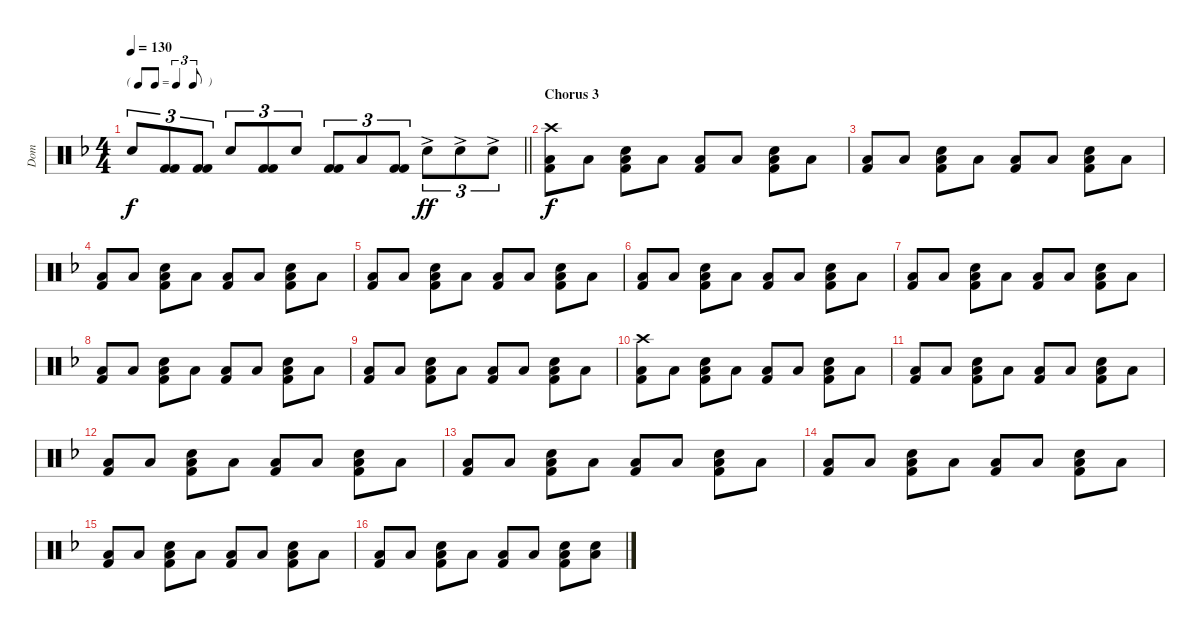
\track ("Dom" "Dom") {instrument percussion}
\staff {score}
\articulation defaults
\ts (4 4)
\tf triplet8th
\tempo 130
\clef neutral
\barLineRight lightlight
\ks dminor "Electric Snare (hit)".8{tu (3 2) dy f}
("Kick (hit) 2" "Kick (hit) 2").8{tu (3 2)} ("Kick (hit) 2" "Kick (hit) 2").8{tu (3 2)} "Electric Snare (hit)".8{tu (3 2)} ("Kick (hit) 2" "Kick (hit) 2").8{tu (3 2)} "Electric Snare (hit)".8{tu (3 2)} ("Kick (hit) 2" "Kick (hit) 2").8{tu (3 2)} "Low Tom (hit)".8{tu (3 2)} ("Kick (hit) 2" "Kick (hit) 2").8{tu (3 2)} "Electric Snare (hit)"{ac}.8{tu (3 2) dy ff} "Electric Snare (hit)"{ac}.8{tu (3 2)} "Electric Snare (hit)"{ac}.8{tu (3 2)} |
\section ("" "Chorus 3")
("Crash high (hit)" "Low Tom (hit)" "Kick (hit) 2").8{dy f} "Low Tom (hit)".8 ("Electric Snare (hit)" "Low Tom (hit)" "Kick (hit) 2").8 "Low Tom (hit)".8 ("Low Tom (hit)" "Kick (hit) 2").8 "Low Tom (hit)".8 ("Electric Snare (hit)" "Low Tom (hit)" "Kick (hit) 2").8 "Low Tom (hit)".8 |
("Low Tom (hit)" "Kick (hit) 2").8 "Low Tom (hit)".8 ("Electric Snare (hit)" "Low Tom (hit)" "Kick (hit) 2").8 "Low Tom (hit)".8 ("Low Tom (hit)" "Kick (hit) 2").8 "Low Tom (hit)".8 ("Electric Snare (hit)" "Low Tom (hit)" "Kick (hit) 2").8 "Low Tom (hit)".8 |
("Low Tom (hit)" "Kick (hit) 2").8 "Low Tom (hit)".8 ("Electric Snare (hit)" "Low Tom (hit)" "Kick (hit) 2").8 "Low Tom (hit)".8 ("Low Tom (hit)" "Kick (hit) 2").8 "Low Tom (hit)".8 ("Electric Snare (hit)" "Low Tom (hit)" "Kick (hit) 2").8 "Low Tom (hit)".8 |
("Low Tom (hit)" "Kick (hit) 2").8 "Low Tom (hit)".8 ("Electric Snare (hit)" "Low Tom (hit)" "Kick (hit) 2").8 "Low Tom (hit)".8 ("Low Tom (hit)" "Kick (hit) 2").8 "Low Tom (hit)".8 ("Electric Snare (hit)" "Low Tom (hit)" "Kick (hit) 2").8 "Low Tom (hit)".8 |
("Low Tom (hit)" "Kick (hit) 2").8 "Low Tom (hit)".8 ("Electric Snare (hit)" "Low Tom (hit)" "Kick (hit) 2").8 "Low Tom (hit)".8 ("Low Tom (hit)" "Kick (hit) 2").8 "Low Tom (hit)".8 ("Electric Snare (hit)" "Low Tom (hit)" "Kick (hit) 2").8 "Low Tom (hit)".8 |
("Low Tom (hit)" "Kick (hit) 2").8 "Low Tom (hit)".8 ("Electric Snare (hit)" "Low Tom (hit)" "Kick (hit) 2").8 "Low Tom (hit)".8 ("Low Tom (hit)" "Kick (hit) 2").8 "Low Tom (hit)".8 ("Electric Snare (hit)" "Low Tom (hit)" "Kick (hit) 2").8 "Low Tom (hit)".8 |
("Low Tom (hit)" "Kick (hit) 2").8 "Low Tom (hit)".8 ("Electric Snare (hit)" "Low Tom (hit)" "Kick (hit) 2").8 "Low Tom (hit)".8 ("Low Tom (hit)" "Kick (hit) 2").8 "Low Tom (hit)".8 ("Electric Snare (hit)" "Low Tom (hit)" "Kick (hit) 2").8 "Low Tom (hit)".8 |
("Low Tom (hit)" "Kick (hit) 2").8 "Low Tom (hit)".8 ("Electric Snare (hit)" "Low Tom (hit)" "Kick (hit) 2").8 "Low Tom (hit)".8 ("Low Tom (hit)" "Kick (hit) 2").8 "Low Tom (hit)".8 ("Electric Snare (hit)" "Low Tom (hit)" "Kick (hit) 2").8 "Low Tom (hit)".8 |
("Crash high (hit)" "Low Tom (hit)" "Kick (hit) 2").8 "Low Tom (hit)".8 ("Electric Snare (hit)" "Low Tom (hit)" "Kick (hit) 2").8 "Low Tom (hit)".8 ("Low Tom (hit)" "Kick (hit) 2").8 "Low Tom (hit)".8 ("Electric Snare (hit)" "Low Tom (hit)" "Kick (hit) 2").8 "Low Tom (hit)".8 |
("Low Tom (hit)" "Kick (hit) 2").8 "Low Tom (hit)".8 ("Electric Snare (hit)" "Low Tom (hit)" "Kick (hit) 2").8 "Low Tom (hit)".8 ("Low Tom (hit)" "Kick (hit) 2").8 "Low Tom (hit)".8 ("Electric Snare (hit)" "Low Tom (hit)" "Kick (hit) 2").8 "Low Tom (hit)".8 |
("Low Tom (hit)" "Kick (hit) 2").8 "Low Tom (hit)".8 ("Electric Snare (hit)" "Low Tom (hit)" "Kick (hit) 2").8 "Low Tom (hit)".8 ("Low Tom (hit)" "Kick (hit) 2").8 "Low Tom (hit)".8 ("Electric Snare (hit)" "Low Tom (hit)" "Kick (hit) 2").8 "Low Tom (hit)".8 |
("Low Tom (hit)" "Kick (hit) 2").8 "Low Tom (hit)".8 ("Electric Snare (hit)" "Low Tom (hit)" "Kick (hit) 2").8 "Low Tom (hit)".8 ("Low Tom (hit)" "Kick (hit) 2").8 "Low Tom (hit)".8 ("Electric Snare (hit)" "Low Tom (hit)" "Kick (hit) 2").8 "Low Tom (hit)".8 |
("Low Tom (hit)" "Kick (hit) 2").8 "Low Tom (hit)".8 ("Electric Snare (hit)" "Low Tom (hit)" "Kick (hit) 2").8 "Low Tom (hit)".8 ("Low Tom (hit)" "Kick (hit) 2").8 "Low Tom (hit)".8 ("Electric Snare (hit)" "Low Tom (hit)" "Kick (hit) 2").8 "Low Tom (hit)".8 |
("Low Tom (hit)" "Kick (hit) 2").8 "Low Tom (hit)".8 ("Electric Snare (hit)" "Low Tom (hit)" "Kick (hit) 2").8 "Low Tom (hit)".8 ("Low Tom (hit)" "Kick (hit) 2").8 "Low Tom (hit)".8 ("Electric Snare (hit)" "Low Tom (hit)" "Kick (hit) 2").8 "Low Tom (hit)".8 |
("Low Tom (hit)" "Kick (hit) 2").8 "Low Tom (hit)".8 ("Electric Snare (hit)" "Low Tom (hit)" "Kick (hit) 2").8 "Low Tom (hit)".8 ("Low Tom (hit)" "Kick (hit) 2").8 "Low Tom (hit)".8 ("Electric Snare (hit)" "Low Tom (hit)" "Kick (hit) 2").8 ("Electric Snare (hit)" "Low Tom (hit)").8
